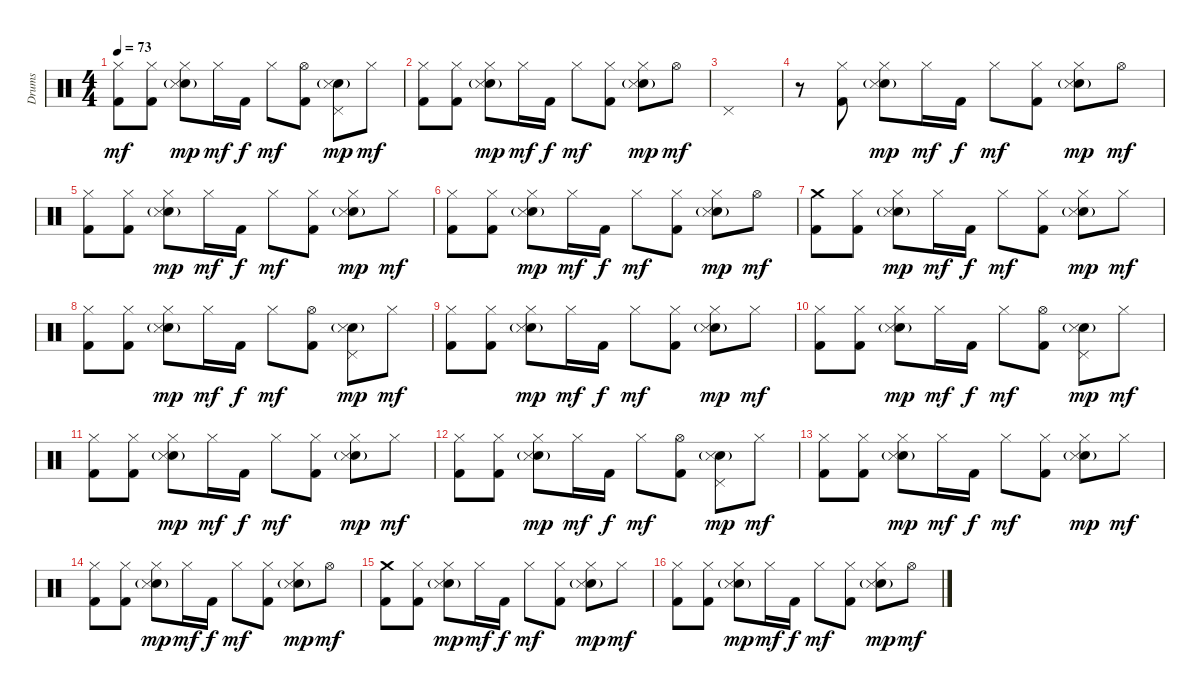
\track ("Drums" "Drums") {instrument percussion}
\staff {score}
\articulation defaults
\ts (4 4)
\tempo 73
\clef neutral
\ks c
("Hi-Hat (closed)" "Kick (hit) 2").8{dy mf} ("Hi-Hat (closed)" "Kick (hit) 2").8 ("Hi-Hat (closed)" "Snare (hit) 2"{g} "Snare (side stick) 3").8{dy mp} "Hi-Hat (closed)".16{dy mf} "Kick (hit) 2".16{dy f} "Hi-Hat (closed)".8{dy mf} ("Hi-Hat (open)" "Kick (hit) 2").8 ("Pedal Hi-Hat (hit)" "Snare (hit) 2"{g} "Snare (side stick) 3").8{dy mp} "Hi-Hat (closed)".8{dy mf} |
("Hi-Hat (closed)" "Kick (hit) 2").8 ("Hi-Hat (closed)" "Kick (hit) 2").8 ("Hi-Hat (closed)" "Snare (hit) 2"{g} "Snare (side stick) 3").8{dy mp} "Hi-Hat (closed)".16{dy mf} "Kick (hit) 2".16{dy f} "Hi-Hat (closed)".8{dy mf} ("Hi-Hat (closed)" "Kick (hit) 2").8 ("Hi-Hat (closed)" "Snare (hit) 2"{g} "Snare (side stick) 3").8{dy mp} "Hi-Hat (open)".8{dy mf} |
"Pedal Hi-Hat (hit)".1 |
r.8 ("Hi-Hat (closed)" "Kick (hit) 2").8 ("Hi-Hat (closed)" "Snare (hit) 2"{g} "Snare (side stick) 3").8{dy mp} "Hi-Hat (closed)".16{dy mf} "Kick (hit) 2".16{dy f} "Hi-Hat (closed)".8{dy mf} ("Hi-Hat (closed)" "Kick (hit) 2").8 ("Hi-Hat (closed)" "Snare (hit) 2"{g} "Snare (side stick) 3").8{dy mp} "Hi-Hat (open)".8{dy mf} |
("Hi-Hat (closed)" "Kick (hit) 2").8 ("Hi-Hat (closed)" "Kick (hit) 2").8 ("Hi-Hat (closed)" "Snare (hit) 2"{g} "Snare (side stick) 3").8{dy mp} "Hi-Hat (closed)".16{dy mf} "Kick (hit) 2".16{dy f} "Hi-Hat (closed)".8{dy mf} ("Hi-Hat (closed)" "Kick (hit) 2").8 ("Hi-Hat (closed)" "Snare (hit) 2"{g} "Snare (side stick) 3").8{dy mp} "Hi-Hat (closed)".8{dy mf} |
("Hi-Hat (closed)" "Kick (hit) 2").8 ("Hi-Hat (closed)" "Kick (hit) 2").8 ("Hi-Hat (closed)" "Snare (hit) 2"{g} "Snare (side stick) 3").8{dy mp} "Hi-Hat (closed)".16{dy mf} "Kick (hit) 2".16{dy f} "Hi-Hat (closed)".8{dy mf} ("Hi-Hat (closed)" "Kick (hit) 2").8 ("Hi-Hat (closed)" "Snare (hit) 2"{g} "Snare (side stick) 3").8{dy mp} "Hi-Hat (open)".8{dy mf} |
("Crash medium (hit)" "Kick (hit) 2").8 ("Hi-Hat (closed)" "Kick (hit) 2").8 ("Hi-Hat (closed)" "Snare (hit) 2"{g} "Snare (side stick) 3").8{dy mp} "Hi-Hat (closed)".16{dy mf} "Kick (hit) 2".16{dy f} "Hi-Hat (closed)".8{dy mf} ("Hi-Hat (closed)" "Kick (hit) 2").8 ("Hi-Hat (closed)" "Snare (hit) 2"{g} "Snare (side stick) 3").8{dy mp} "Hi-Hat (closed)".8{dy mf} |
("Hi-Hat (closed)" "Kick (hit) 2").8 ("Hi-Hat (closed)" "Kick (hit) 2").8 ("Hi-Hat (closed)" "Snare (hit) 2"{g} "Snare (side stick) 3").8{dy mp} "Hi-Hat (closed)".16{dy mf} "Kick (hit) 2".16{dy f} "Hi-Hat (closed)".8{dy mf} ("Hi-Hat (open)" "Kick (hit) 2").8 ("Pedal Hi-Hat (hit)" "Snare (hit) 2"{g} "Snare (side stick) 3").8{dy mp} "Hi-Hat (closed)".8{dy mf} |
("Hi-Hat (closed)" "Kick (hit) 2").8 ("Hi-Hat (closed)" "Kick (hit) 2").8 ("Hi-Hat (closed)" "Snare (hit) 2"{g} "Snare (side stick) 3").8{dy mp} "Hi-Hat (closed)".16{dy mf} "Kick (hit) 2".16{dy f} "Hi-Hat (closed)".8{dy mf} ("Hi-Hat (closed)" "Kick (hit) 2").8 ("Hi-Hat (closed)" "Snare (hit) 2"{g} "Snare (side stick) 3").8{dy mp} "Hi-Hat (closed)".8{dy mf} |
("Hi-Hat (closed)" "Kick (hit) 2").8 ("Hi-Hat (closed)" "Kick (hit) 2").8 ("Hi-Hat (closed)" "Snare (hit) 2"{g} "Snare (side stick) 3").8{dy mp} "Hi-Hat (closed)".16{dy mf} "Kick (hit) 2".16{dy f} "Hi-Hat (closed)".8{dy mf} ("Hi-Hat (open)" "Kick (hit) 2").8 ("Pedal Hi-Hat (hit)" "Snare (hit) 2"{g} "Snare (side stick) 3").8{dy mp} "Hi-Hat (closed)".8{dy mf} |
("Hi-Hat (closed)" "Kick (hit) 2").8 ("Hi-Hat (closed)" "Kick (hit) 2").8 ("Hi-Hat (closed)" "Snare (hit) 2"{g} "Snare (side stick) 3").8{dy mp} "Hi-Hat (closed)".16{dy mf} "Kick (hit) 2".16{dy f} "Hi-Hat (closed)".8{dy mf} ("Hi-Hat (closed)" "Kick (hit) 2").8 ("Hi-Hat (closed)" "Snare (hit) 2"{g} "Snare (side stick) 3").8{dy mp} "Hi-Hat (closed)".8{dy mf} |
("Hi-Hat (closed)" "Kick (hit) 2").8 ("Hi-Hat (closed)" "Kick (hit) 2").8 ("Hi-Hat (closed)" "Snare (hit) 2"{g} "Snare (side stick) 3").8{dy mp} "Hi-Hat (closed)".16{dy mf} "Kick (hit) 2".16{dy f} "Hi-Hat (closed)".8{dy mf} ("Hi-Hat (open)" "Kick (hit) 2").8 ("Pedal Hi-Hat (hit)" "Snare (hit) 2"{g} "Snare (side stick) 3").8{dy mp} "Hi-Hat (closed)".8{dy mf} |
("Hi-Hat (closed)" "Kick (hit) 2").8 ("Hi-Hat (closed)" "Kick (hit) 2").8 ("Hi-Hat (closed)" "Snare (hit) 2"{g} "Snare (side stick) 3").8{dy mp} "Hi-Hat (closed)".16{dy mf} "Kick (hit) 2".16{dy f} "Hi-Hat (closed)".8{dy mf} ("Hi-Hat (closed)" "Kick (hit) 2").8 ("Hi-Hat (closed)" "Snare (hit) 2"{g} "Snare (side stick) 3").8{dy mp} "Hi-Hat (closed)".8{dy mf} |
("Hi-Hat (closed)" "Kick (hit) 2").8 ("Hi-Hat (closed)" "Kick (hit) 2").8 ("Hi-Hat (closed)" "Snare (hit) 2"{g} "Snare (side stick) 3").8{dy mp} "Hi-Hat (closed)".16{dy mf} "Kick (hit) 2".16{dy f} "Hi-Hat (closed)".8{dy mf} ("Hi-Hat (closed)" "Kick (hit) 2").8 ("Hi-Hat (closed)" "Snare (hit) 2"{g} "Snare (side stick) 3").8{dy mp} "Hi-Hat (open)".8{dy mf} |
("Crash medium (hit)" "Kick (hit) 2").8 ("Hi-Hat (closed)" "Kick (hit) 2").8 ("Hi-Hat (closed)" "Snare (hit) 2"{g} "Snare (side stick) 3").8{dy mp} "Hi-Hat (closed)".16{dy mf} "Kick (hit) 2".16{dy f} "Hi-Hat (closed)".8{dy mf} ("Hi-Hat (closed)" "Kick (hit) 2").8 ("Hi-Hat (closed)" "Snare (hit) 2"{g} "Snare (side stick) 3").8{dy mp} "Hi-Hat (closed)".8{dy mf} |
("Hi-Hat (closed)" "Kick (hit) 2").8 ("Hi-Hat (closed)" "Kick (hit) 2").8 ("Hi-Hat (closed)" "Snare (hit) 2"{g} "Snare (side stick) 3").8{dy mp} "Hi-Hat (closed)".16{dy mf} "Kick (hit) 2".16{dy f} "Hi-Hat (closed)".8{dy mf} ("Hi-Hat (closed)" "Kick (hit) 2").8 ("Hi-Hat (closed)" "Snare (hit) 2"{g} "Snare (side stick) 3").8{dy mp} "Hi-Hat (open)".8{dy mf}
